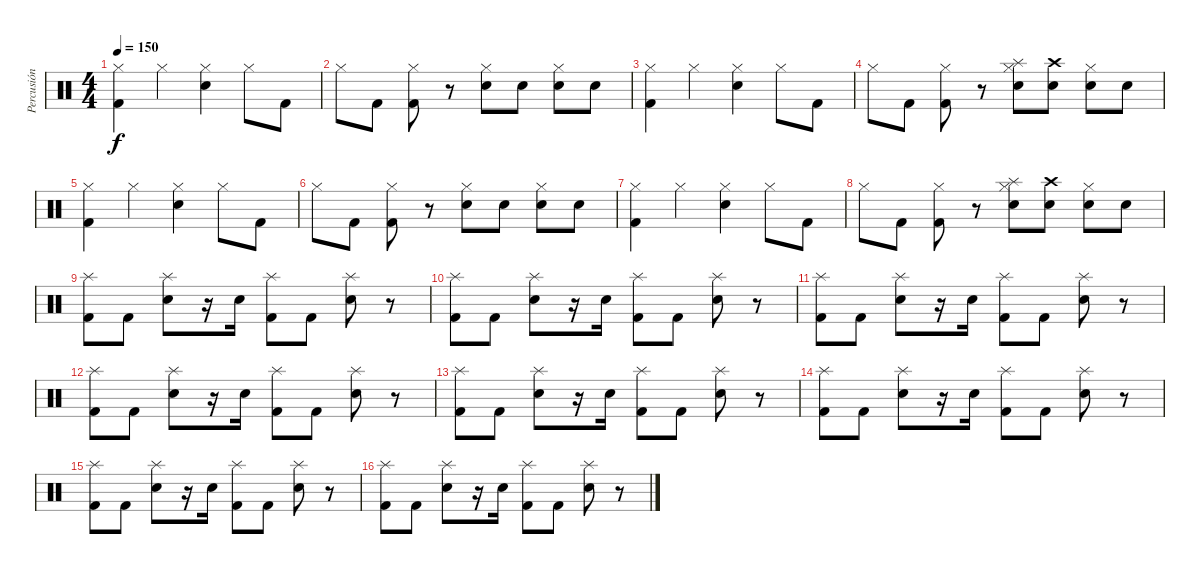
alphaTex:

\track ("Percusión" "Percusión") {instrument percussion}
\staff {score}
\articulation defaults
\ts (4 4)
\tempo 150
\clef neutral
\ks c
("Hi-Hat (closed)" "Kick (hit) 2").4{dy f} "Hi-Hat (closed)".4 ("Hi-Hat (closed)" "Snare (hit) 2").4 "Hi-Hat (closed)".8 "Kick (hit) 2".8 |
"Hi-Hat (closed)".8 "Kick (hit) 2".8 ("Hi-Hat (closed)" "Kick (hit) 2").8 r.8 ("Hi-Hat (closed)" "Snare (hit) 2").8 "Snare (hit) 2".8 ("Hi-Hat (closed)" "Snare (hit) 2").8 "Snare (hit) 2".8 |
("Hi-Hat (closed)" "Kick (hit) 2").4 "Hi-Hat (closed)".4 ("Hi-Hat (closed)" "Snare (hit) 2").4 "Hi-Hat (closed)".8 "Kick (hit) 2".8 |
"Hi-Hat (closed)".8 "Kick (hit) 2".8 ("Hi-Hat (closed)" "Kick (hit) 2").8 r.8 ("Splash (hit)" "Hi-Hat (closed)" "Snare (hit) 2").8 ("Crash high (hit)" "Snare (hit) 2").8 ("Hi-Hat (closed)" "Snare (hit) 2").8 "Snare (hit) 2".8 |
("Hi-Hat (closed)" "Kick (hit) 2").4 "Hi-Hat (closed)".4 ("Hi-Hat (closed)" "Snare (hit) 2").4 "Hi-Hat (closed)".8 "Kick (hit) 2".8 |
"Hi-Hat (closed)".8 "Kick (hit) 2".8 ("Hi-Hat (closed)" "Kick (hit) 2").8 r.8 ("Hi-Hat (closed)" "Snare (hit) 2").8 "Snare (hit) 2".8 ("Hi-Hat (closed)" "Snare (hit) 2").8 "Snare (hit) 2".8 |
("Hi-Hat (closed)" "Kick (hit) 2").4 "Hi-Hat (closed)".4 ("Hi-Hat (closed)" "Snare (hit) 2").4 "Hi-Hat (closed)".8 "Kick (hit) 2".8 |
"Hi-Hat (closed)".8 "Kick (hit) 2".8 ("Hi-Hat (closed)" "Kick (hit) 2").8 r.8 ("Splash (hit)" "Hi-Hat (closed)" "Snare (hit) 2").8 ("Crash high (hit)" "Snare (hit) 2").8 ("Hi-Hat (closed)" "Snare (hit) 2").8 "Snare (hit) 2".8 |
("Splash (hit)" "Kick (hit) 2").8 "Kick (hit) 2".8 ("Splash (hit)" "Snare (hit) 2").8 r.16 "Snare (hit) 2".16 ("Splash (hit)" "Kick (hit) 2").8 "Kick (hit) 2".8 ("Splash (hit)" "Snare (hit) 2").8 r.8 |
("Splash (hit)" "Kick (hit) 2").8 "Kick (hit) 2".8 ("Splash (hit)" "Snare (hit) 2").8 r.16 "Snare (hit) 2".16 ("Splash (hit)" "Kick (hit) 2").8 "Kick (hit) 2".8 ("Splash (hit)" "Snare (hit) 2").8 r.8 |
("Splash (hit)" "Kick (hit) 2").8 "Kick (hit) 2".8 ("Splash (hit)" "Snare (hit) 2").8 r.16 "Snare (hit) 2".16 ("Splash (hit)" "Kick (hit) 2").8 "Kick (hit) 2".8 ("Splash (hit)" "Snare (hit) 2").8 r.8 |
("Splash (hit)" "Kick (hit) 2").8 "Kick (hit) 2".8 ("Splash (hit)" "Snare (hit) 2").8 r.16 "Snare (hit) 2".16 ("Splash (hit)" "Kick (hit) 2").8 "Kick (hit) 2".8 ("Splash (hit)" "Snare (hit) 2").8 r.8 |
("Splash (hit)" "Kick (hit) 2").8 "Kick (hit) 2".8 ("Splash (hit)" "Snare (hit) 2").8 r.16 "Snare (hit) 2".16 ("Splash (hit)" "Kick (hit) 2").8 "Kick (hit) 2".8 ("Splash (hit)" "Snare (hit) 2").8 r.8 |
("Splash (hit)" "Kick (hit) 2").8 "Kick (hit) 2".8 ("Splash (hit)" "Snare (hit) 2").8 r.16 "Snare (hit) 2".16 ("Splash (hit)" "Kick (hit) 2").8 "Kick (hit) 2".8 ("Splash (hit)" "Snare (hit) 2").8 r.8 |
("Splash (hit)" "Kick (hit) 2").8 "Kick (hit) 2".8 ("Splash (hit)" "Snare (hit) 2").8 r.16 "Snare (hit) 2".16 ("Splash (hit)" "Kick (hit) 2").8 "Kick (hit) 2".8 ("Splash (hit)" "Snare (hit) 2").8 r.8 |
("Splash (hit)" "Kick (hit) 2").8 "Kick (hit) 2".8 ("Splash (hit)" "Snare (hit) 2").8 r.16 "Snare (hit) 2".16 ("Splash (hit)" "Kick (hit) 2").8 "Kick (hit) 2".8 ("Splash (hit)" "Snare (hit) 2").8 r.8
